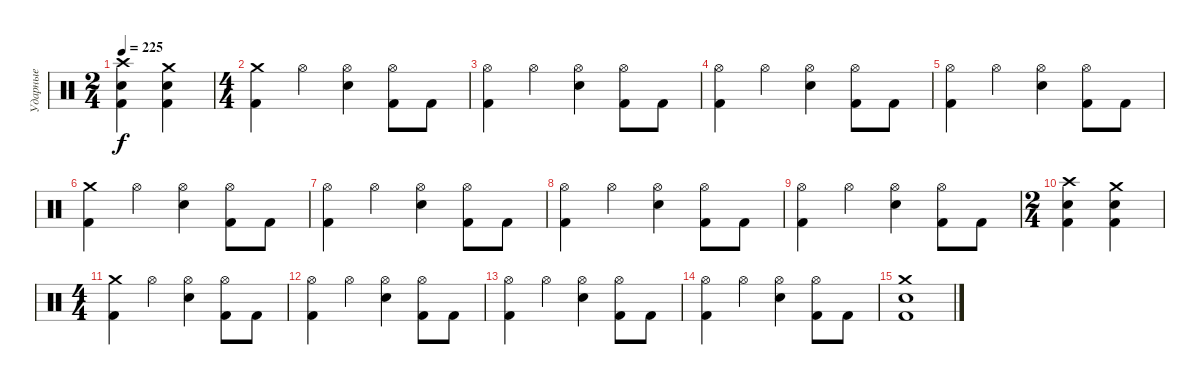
\track ("Ударные" "Ударные") {instrument percussion}
\staff {score}
\articulation defaults
\ts (2 4)
\tempo 225
\clef neutral
\ks c
("Crash high (hit)" "Snare (hit) 2" "Kick (hit) 2").4{dy f} ("Crash medium (hit)" "Snare (hit) 2" "Kick (hit) 2").4 |
\ts (4 4)
("Crash medium (hit)" "Kick (hit) 2").4 "Hi-Hat (open)".4 ("Hi-Hat (open)" "Snare (hit) 2").4 ("Hi-Hat (open)" "Kick (hit) 2").8 "Kick (hit) 2".8 |
("Hi-Hat (open)" "Kick (hit) 2").4 "Hi-Hat (open)".4 ("Hi-Hat (open)" "Snare (hit) 2").4 ("Hi-Hat (open)" "Kick (hit) 2").8 "Kick (hit) 2".8 |
("Hi-Hat (open)" "Kick (hit) 2").4 "Hi-Hat (open)".4 ("Hi-Hat (open)" "Snare (hit) 2").4 ("Hi-Hat (open)" "Kick (hit) 2").8 "Kick (hit) 2".8 |
("Hi-Hat (open)" "Kick (hit) 2").4 "Hi-Hat (open)".4 ("Hi-Hat (open)" "Snare (hit) 2").4 ("Hi-Hat (open)" "Kick (hit) 2").8 "Kick (hit) 2".8 |
("Crash medium (hit)" "Kick (hit) 2").4 "Hi-Hat (open)".4 ("Hi-Hat (open)" "Snare (hit) 2").4 ("Hi-Hat (open)" "Kick (hit) 2").8 "Kick (hit) 2".8 |
("Hi-Hat (open)" "Kick (hit) 2").4 "Hi-Hat (open)".4 ("Hi-Hat (open)" "Snare (hit) 2").4 ("Hi-Hat (open)" "Kick (hit) 2").8 "Kick (hit) 2".8 |
("Hi-Hat (open)" "Kick (hit) 2").4 "Hi-Hat (open)".4 ("Hi-Hat (open)" "Snare (hit) 2").4 ("Hi-Hat (open)" "Kick (hit) 2").8 "Kick (hit) 2".8 |
("Hi-Hat (open)" "Kick (hit) 2").4 "Hi-Hat (open)".4 ("Hi-Hat (open)" "Snare (hit) 2").4 ("Hi-Hat (open)" "Kick (hit) 2").8 "Kick (hit) 2".8 |
\ts (2 4)
("Crash high (hit)" "Snare (hit) 2" "Kick (hit) 2").4 ("Crash medium (hit)" "Snare (hit) 2" "Kick (hit) 2").4 |
\ts (4 4)
("Crash medium (hit)" "Kick (hit) 2").4 "Hi-Hat (open)".4 ("Hi-Hat (open)" "Snare (hit) 2").4 ("Hi-Hat (open)" "Kick (hit) 2").8 "Kick (hit) 2".8 |
("Hi-Hat (open)" "Kick (hit) 2").4 "Hi-Hat (open)".4 ("Hi-Hat (open)" "Snare (hit) 2").4 ("Hi-Hat (open)" "Kick (hit) 2").8 "Kick (hit) 2".8 |
("Hi-Hat (open)" "Kick (hit) 2").4 "Hi-Hat (open)".4 ("Hi-Hat (open)" "Snare (hit) 2").4 ("Hi-Hat (open)" "Kick (hit) 2").8 "Kick (hit) 2".8 |
("Hi-Hat (open)" "Kick (hit) 2").4 "Hi-Hat (open)".4 ("Hi-Hat (open)" "Snare (hit) 2").4 ("Hi-Hat (open)" "Kick (hit) 2").8 "Kick (hit) 2".8 |
("Snare (hit) 2" "Crash medium (hit)" "Kick (hit) 2").1
